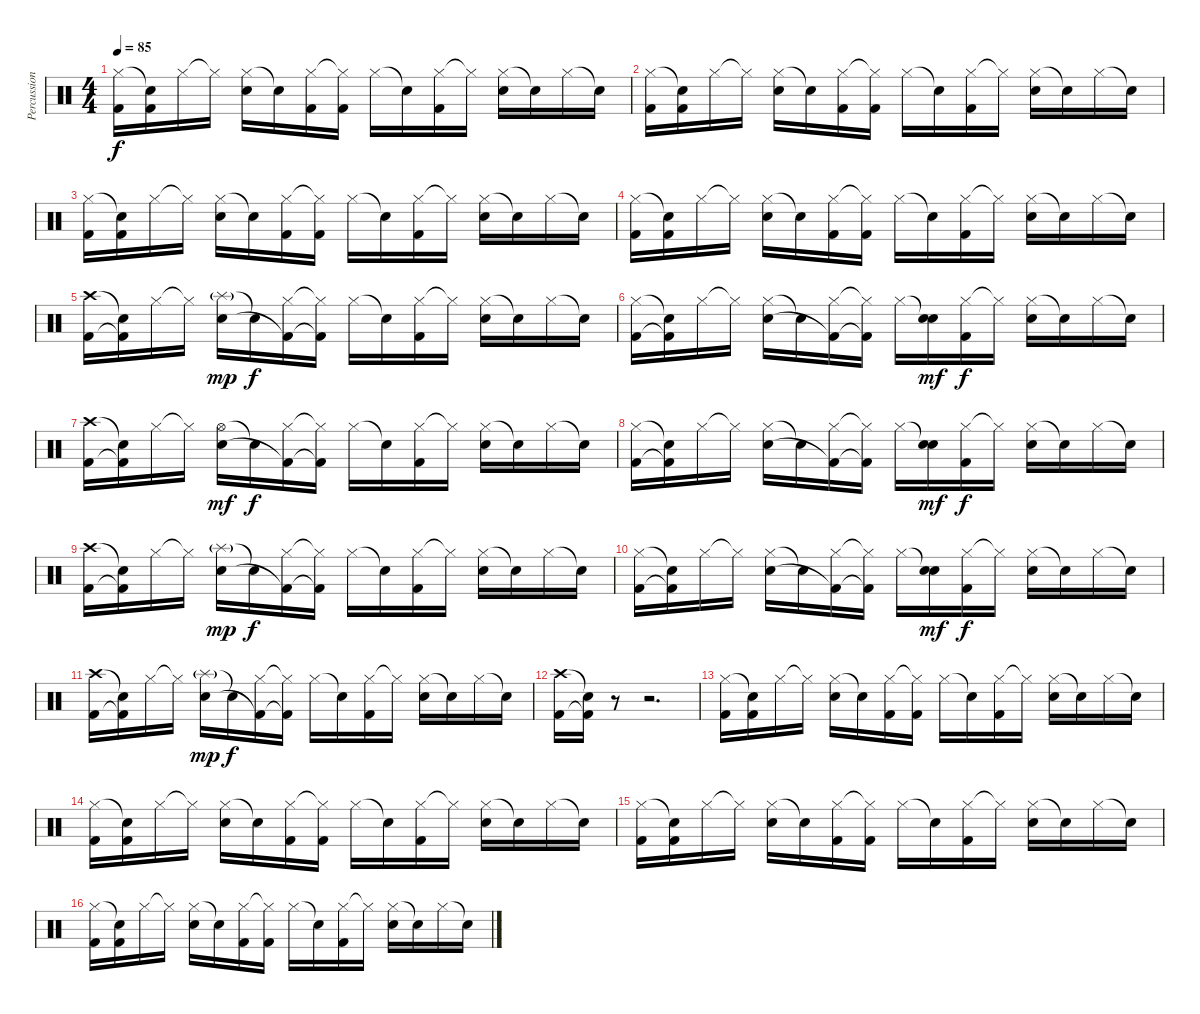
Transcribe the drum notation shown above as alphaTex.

\track ("Percussion" "Percussion") {instrument percussion}
\staff {score}
\articulation defaults
\ts (4 4)
\tempo 85
\clef neutral
\ks c
("Hi-Hat (closed)" "Kick (hit) 2").16{dy f} ("Snare (hit)"{t} "Kick (hit) 2").16 "Hi-Hat (closed)".16 "Hi-Hat (closed)"{t}.16 ("Hi-Hat (closed)" "Snare (hit) 2").16 "Snare (hit)"{t}.16 ("Hi-Hat (closed)" "Kick (hit) 2").16 ("Hi-Hat (closed)"{t} "Kick (hit) 2").16 "Hi-Hat (closed)".16 "Snare (hit)"{t}.16 ("Hi-Hat (closed)" "Kick (hit) 2").16 "Hi-Hat (closed)"{t}.16 ("Hi-Hat (closed)" "Snare (hit) 2").16 "Snare (hit)"{t}.16 "Hi-Hat (closed)".16 "Snare (hit)"{t}.16 |
("Hi-Hat (closed)" "Kick (hit) 2").16 ("Snare (hit)"{t} "Kick (hit) 2").16 "Hi-Hat (closed)".16 "Hi-Hat (closed)"{t}.16 ("Hi-Hat (closed)" "Snare (hit) 2").16 "Snare (hit)"{t}.16 ("Hi-Hat (closed)" "Kick (hit) 2").16 ("Hi-Hat (closed)"{t} "Kick (hit) 2").16 "Hi-Hat (closed)".16 "Snare (hit)"{t}.16 ("Hi-Hat (closed)" "Kick (hit) 2").16 "Hi-Hat (closed)"{t}.16 ("Hi-Hat (closed)" "Snare (hit) 2").16 "Snare (hit)"{t}.16 "Hi-Hat (closed)".16 "Snare (hit)"{t}.16 |
("Hi-Hat (closed)" "Kick (hit) 2").16 ("Snare (hit)"{t} "Kick (hit) 2").16 "Hi-Hat (closed)".16 "Hi-Hat (closed)"{t}.16 ("Hi-Hat (closed)" "Snare (hit) 2").16 "Snare (hit)"{t}.16 ("Hi-Hat (closed)" "Kick (hit) 2").16 ("Hi-Hat (closed)"{t} "Kick (hit) 2").16 "Hi-Hat (closed)".16 "Snare (hit)"{t}.16 ("Hi-Hat (closed)" "Kick (hit) 2").16 "Hi-Hat (closed)"{t}.16 ("Hi-Hat (closed)" "Snare (hit) 2").16 "Snare (hit)"{t}.16 "Hi-Hat (closed)".16 "Snare (hit)"{t}.16 |
("Hi-Hat (closed)" "Kick (hit) 2").16 ("Snare (hit)"{t} "Kick (hit) 2").16 "Hi-Hat (closed)".16 "Hi-Hat (closed)"{t}.16 ("Hi-Hat (closed)" "Snare (hit) 2").16 "Snare (hit)"{t}.16 ("Hi-Hat (closed)" "Kick (hit) 2").16 ("Hi-Hat (closed)"{t} "Kick (hit) 2").16 "Hi-Hat (closed)".16 "Snare (hit)"{t}.16 ("Hi-Hat (closed)" "Kick (hit) 2").16 "Hi-Hat (closed)"{t}.16 ("Hi-Hat (closed)" "Snare (hit) 2").16 "Snare (hit)"{t}.16 "Hi-Hat (closed)".16 "Snare (hit)"{t}.16 |
("Crash high (hit)" "Kick (hit) 2").16 ("Snare (hit)"{t} "Kick (hit) 2"{t}).16 "Hi-Hat (closed)".16 "Hi-Hat (closed)"{t}.16 ("Splash (hit)"{g} "Snare (hit) 2").16{dy mp} "Snare (hit)"{t}.16{dy f} ("Hi-Hat (closed)" "Kick (hit) 2"{t}).16 ("Hi-Hat (closed)"{t} "Kick (hit) 2"{t}).16 "Hi-Hat (closed)".16 "Snare (hit)"{t}.16 ("Hi-Hat (closed)" "Kick (hit) 2").16 "Hi-Hat (closed)"{t}.16 ("Hi-Hat (closed)" "Snare (hit) 2").16 "Snare (hit)"{t}.16 "Hi-Hat (closed)".16 "Snare (hit)"{t}.16 |
("Hi-Hat (closed)" "Kick (hit) 2").16 ("Snare (hit)"{t} "Kick (hit) 2"{t}).16 "Hi-Hat (closed)".16 "Hi-Hat (closed)"{t}.16 ("Hi-Hat (closed)" "Snare (hit) 2").16 "Snare (hit)"{t}.16 ("Hi-Hat (closed)" "Kick (hit) 2"{t}).16 ("Hi-Hat (closed)"{t} "Kick (hit) 2"{t}).16 "Hi-Hat (closed)".16 ("Snare (hit)"{t} "Snare (hit) 2").16{dy mf} ("Hi-Hat (closed)" "Kick (hit) 2").16{dy f} "Hi-Hat (closed)"{t}.16 ("Hi-Hat (closed)" "Snare (hit) 2").16 "Snare (hit)"{t}.16 "Hi-Hat (closed)".16 "Snare (hit)"{t}.16 |
("Crash high (hit)" "Kick (hit) 2").16 ("Snare (hit)"{t} "Kick (hit) 2"{t}).16 "Hi-Hat (closed)".16 "Hi-Hat (closed)"{t}.16 ("Hi-Hat (open)" "Snare (hit) 2").16{dy mf} "Snare (hit)"{t}.16{dy f} ("Hi-Hat (closed)" "Kick (hit) 2"{t}).16 ("Hi-Hat (closed)"{t} "Kick (hit) 2"{t}).16 "Hi-Hat (closed)".16 "Snare (hit)"{t}.16 ("Hi-Hat (closed)" "Kick (hit) 2").16 "Hi-Hat (closed)"{t}.16 ("Hi-Hat (closed)" "Snare (hit) 2").16 "Snare (hit)"{t}.16 "Hi-Hat (closed)".16 "Snare (hit)"{t}.16 |
("Hi-Hat (closed)" "Kick (hit) 2").16 ("Snare (hit)"{t} "Kick (hit) 2"{t}).16 "Hi-Hat (closed)".16 "Hi-Hat (closed)"{t}.16 ("Hi-Hat (closed)" "Snare (hit) 2").16 "Snare (hit)"{t}.16 ("Hi-Hat (closed)" "Kick (hit) 2"{t}).16 ("Hi-Hat (closed)"{t} "Kick (hit) 2"{t}).16 "Hi-Hat (closed)".16 ("Snare (hit)"{t} "Snare (hit) 2").16{dy mf} ("Hi-Hat (closed)" "Kick (hit) 2").16{dy f} "Hi-Hat (closed)"{t}.16 ("Hi-Hat (closed)" "Snare (hit) 2").16 "Snare (hit)"{t}.16 "Hi-Hat (closed)".16 "Snare (hit)"{t}.16 |
("Crash high (hit)" "Kick (hit) 2").16 ("Snare (hit)"{t} "Kick (hit) 2"{t}).16 "Hi-Hat (closed)".16 "Hi-Hat (closed)"{t}.16 ("Splash (hit)"{g} "Snare (hit) 2").16{dy mp} "Snare (hit)"{t}.16{dy f} ("Hi-Hat (closed)" "Kick (hit) 2"{t}).16 ("Hi-Hat (closed)"{t} "Kick (hit) 2"{t}).16 "Hi-Hat (closed)".16 "Snare (hit)"{t}.16 ("Hi-Hat (closed)" "Kick (hit) 2").16 "Hi-Hat (closed)"{t}.16 ("Hi-Hat (closed)" "Snare (hit) 2").16 "Snare (hit)"{t}.16 "Hi-Hat (closed)".16 "Snare (hit)"{t}.16 |
("Hi-Hat (closed)" "Kick (hit) 2").16 ("Snare (hit)"{t} "Kick (hit) 2"{t}).16 "Hi-Hat (closed)".16 "Hi-Hat (closed)"{t}.16 ("Hi-Hat (closed)" "Snare (hit) 2").16 "Snare (hit)"{t}.16 ("Hi-Hat (closed)" "Kick (hit) 2"{t}).16 ("Hi-Hat (closed)"{t} "Kick (hit) 2"{t}).16 "Hi-Hat (closed)".16 ("Snare (hit)"{t} "Snare (hit) 2").16{dy mf} ("Hi-Hat (closed)" "Kick (hit) 2").16{dy f} "Hi-Hat (closed)"{t}.16 ("Hi-Hat (closed)" "Snare (hit) 2").16 "Snare (hit)"{t}.16 "Hi-Hat (closed)".16 "Snare (hit)"{t}.16 |
("Crash high (hit)" "Kick (hit) 2").16 ("Snare (hit)"{t} "Kick (hit) 2"{t}).16 "Hi-Hat (closed)".16 "Hi-Hat (closed)"{t}.16 ("Splash (hit)"{g} "Snare (hit) 2").16{dy mp} "Snare (hit)"{t}.16{dy f} ("Hi-Hat (closed)" "Kick (hit) 2"{t}).16 ("Hi-Hat (closed)"{t} "Kick (hit) 2"{t}).16 "Hi-Hat (closed)".16 "Snare (hit)"{t}.16 ("Hi-Hat (closed)" "Kick (hit) 2").16 "Hi-Hat (closed)"{t}.16 ("Hi-Hat (closed)" "Snare (hit) 2").16 "Snare (hit)"{t}.16 "Hi-Hat (closed)".16 "Snare (hit)"{t}.16 |
("Crash high (hit)" "Kick (hit) 2").16 ("Snare (hit)"{t} "Kick (hit) 2"{t}).16 r.8 r.2{d} |
("Hi-Hat (closed)" "Kick (hit) 2").16 ("Snare (hit)"{t} "Kick (hit) 2").16 "Hi-Hat (closed)".16 "Hi-Hat (closed)"{t}.16 ("Hi-Hat (closed)" "Snare (hit) 2").16 "Snare (hit)"{t}.16 ("Hi-Hat (closed)" "Kick (hit) 2").16 ("Hi-Hat (closed)"{t} "Kick (hit) 2").16 "Hi-Hat (closed)".16 "Snare (hit)"{t}.16 ("Hi-Hat (closed)" "Kick (hit) 2").16 "Hi-Hat (closed)"{t}.16 ("Hi-Hat (closed)" "Snare (hit) 2").16 "Snare (hit)"{t}.16 "Hi-Hat (closed)".16 "Snare (hit)"{t}.16 |
("Hi-Hat (closed)" "Kick (hit) 2").16 ("Snare (hit)"{t} "Kick (hit) 2").16 "Hi-Hat (closed)".16 "Hi-Hat (closed)"{t}.16 ("Hi-Hat (closed)" "Snare (hit) 2").16 "Snare (hit)"{t}.16 ("Hi-Hat (closed)" "Kick (hit) 2").16 ("Hi-Hat (closed)"{t} "Kick (hit) 2").16 "Hi-Hat (closed)".16 "Snare (hit)"{t}.16 ("Hi-Hat (closed)" "Kick (hit) 2").16 "Hi-Hat (closed)"{t}.16 ("Hi-Hat (closed)" "Snare (hit) 2").16 "Snare (hit)"{t}.16 "Hi-Hat (closed)".16 "Snare (hit)"{t}.16 |
("Hi-Hat (closed)" "Kick (hit) 2").16 ("Snare (hit)"{t} "Kick (hit) 2").16 "Hi-Hat (closed)".16 "Hi-Hat (closed)"{t}.16 ("Hi-Hat (closed)" "Snare (hit) 2").16 "Snare (hit)"{t}.16 ("Hi-Hat (closed)" "Kick (hit) 2").16 ("Hi-Hat (closed)"{t} "Kick (hit) 2").16 "Hi-Hat (closed)".16 "Snare (hit)"{t}.16 ("Hi-Hat (closed)" "Kick (hit) 2").16 "Hi-Hat (closed)"{t}.16 ("Hi-Hat (closed)" "Snare (hit) 2").16 "Snare (hit)"{t}.16 "Hi-Hat (closed)".16 "Snare (hit)"{t}.16 |
("Hi-Hat (closed)" "Kick (hit) 2").16 ("Snare (hit)"{t} "Kick (hit) 2").16 "Hi-Hat (closed)".16 "Hi-Hat (closed)"{t}.16 ("Hi-Hat (closed)" "Snare (hit) 2").16 "Snare (hit)"{t}.16 ("Hi-Hat (closed)" "Kick (hit) 2").16 ("Hi-Hat (closed)"{t} "Kick (hit) 2").16 "Hi-Hat (closed)".16 "Snare (hit)"{t}.16 ("Hi-Hat (closed)" "Kick (hit) 2").16 "Hi-Hat (closed)"{t}.16 ("Hi-Hat (closed)" "Snare (hit) 2").16 "Snare (hit)"{t}.16 "Hi-Hat (closed)".16 "Snare (hit)"{t}.16
